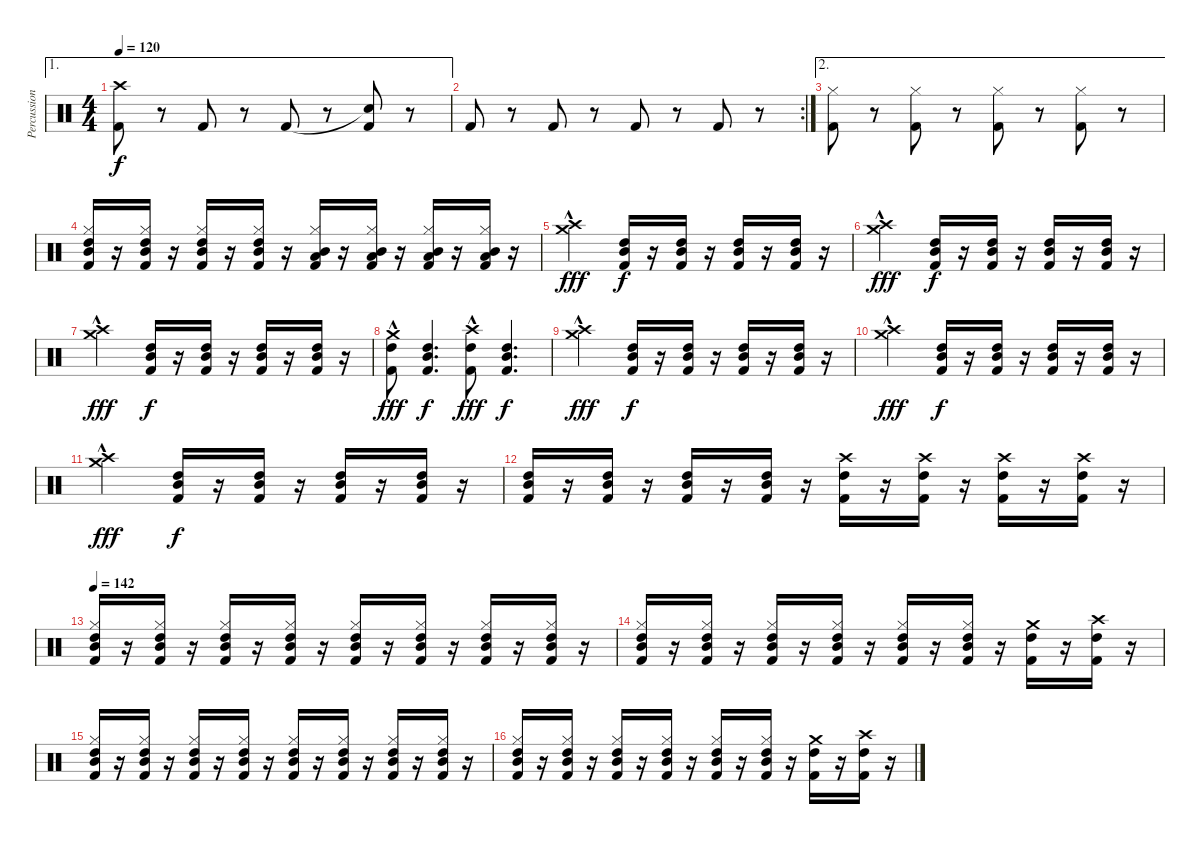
\track ("Percussion" "Percussion") {instrument percussion}
\staff {score}
\articulation defaults
\ae 1
\ts (4 4)
\tempo 120
\clef neutral
\ks c
("Crash high (hit)" "Kick (hit) 2").8{dy f} r.8 "Kick (hit) 2".8 r.8 "Kick (hit) 2".8 r.8 ("Snare (hit)"{t} "Kick (hit) 2").8 r.8 |
\rc 2 "Kick (hit) 2".8
r.8 "Kick (hit) 2".8 r.8 "Kick (hit) 2".8 r.8 "Kick (hit) 2".8 r.8 |
\ae 2
("Hi-Hat (closed)" "Kick (hit) 2").8 r.8 ("Hi-Hat (closed)" "Kick (hit) 2").8 r.8 ("Hi-Hat (closed)" "Kick (hit) 2").8 r.8 ("Hi-Hat (closed)" "Kick (hit) 2").8 r.8 |
("Hi-Hat (closed)" "High Tom (hit)" "Mid Tom (hit)" "Kick (hit) 2").16 r.16 ("Hi-Hat (closed)" "High Tom (hit)" "Mid Tom (hit)" "Kick (hit) 2").16 r.16 ("Hi-Hat (closed)" "High Tom (hit)" "Mid Tom (hit)" "Kick (hit) 2").16 r.16 ("Hi-Hat (closed)" "High Tom (hit)" "Mid Tom (hit)" "Kick (hit) 2").16 r.16 ("Hi-Hat (closed)" "Mid Tom (hit)" "Low Tom (hit)" "Kick (hit) 2").16 r.16 ("Hi-Hat (closed)" "Mid Tom (hit)" "Low Tom (hit)" "Kick (hit) 2").16 r.16 ("Hi-Hat (closed)" "Mid Tom (hit)" "Low Tom (hit)" "Kick (hit) 2").16 r.16 ("Hi-Hat (closed)" "Mid Tom (hit)" "Low Tom (hit)" "Kick (hit) 2").16 r.16 |
("Crash high (hit)"{hac} "Crash medium (hit)"{hac}).2{dy fff} ("High Tom (hit)" "Mid Tom (hit)" "Kick (hit) 2").16{dy f} r.16 ("High Tom (hit)" "Mid Tom (hit)" "Kick (hit) 2").16 r.16 ("High Tom (hit)" "Mid Tom (hit)" "Kick (hit) 2").16 r.16 ("High Tom (hit)" "Mid Tom (hit)" "Kick (hit) 2").16 r.16 |
("Crash high (hit)"{hac} "Crash medium (hit)"{hac}).2{dy fff} ("High Tom (hit)" "Mid Tom (hit)" "Kick (hit) 2").16{dy f} r.16 ("High Tom (hit)" "Mid Tom (hit)" "Kick (hit) 2").16 r.16 ("High Tom (hit)" "Mid Tom (hit)" "Kick (hit) 2").16 r.16 ("High Tom (hit)" "Mid Tom (hit)" "Kick (hit) 2").16 r.16 |
("Crash high (hit)"{hac} "Crash medium (hit)"{hac}).2{dy fff} ("High Tom (hit)" "Mid Tom (hit)" "Kick (hit) 2").16{dy f} r.16 ("High Tom (hit)" "Mid Tom (hit)" "Kick (hit) 2").16 r.16 ("High Tom (hit)" "Mid Tom (hit)" "Kick (hit) 2").16 r.16 ("High Tom (hit)" "Mid Tom (hit)" "Kick (hit) 2").16 r.16 |
("Crash medium (hit)"{hac} "High Tom (hit)" "Kick (hit) 2").8{dy fff} ("High Tom (hit)" "Mid Tom (hit)" "Kick (hit) 2").4{d dy f} ("Crash high (hit)"{hac} "High Tom (hit)" "Kick (hit) 2").8{dy fff} ("High Tom (hit)" "Mid Tom (hit)" "Kick (hit) 2").4{d dy f} |
("Crash high (hit)"{hac} "Crash medium (hit)"{hac}).2{dy fff} ("High Tom (hit)" "Mid Tom (hit)" "Kick (hit) 2").16{dy f} r.16 ("High Tom (hit)" "Mid Tom (hit)" "Kick (hit) 2").16 r.16 ("High Tom (hit)" "Mid Tom (hit)" "Kick (hit) 2").16 r.16 ("High Tom (hit)" "Mid Tom (hit)" "Kick (hit) 2").16 r.16 |
("Crash high (hit)"{hac} "Crash medium (hit)"{hac}).2{dy fff} ("High Tom (hit)" "Mid Tom (hit)" "Kick (hit) 2").16{dy f} r.16 ("High Tom (hit)" "Mid Tom (hit)" "Kick (hit) 2").16 r.16 ("High Tom (hit)" "Mid Tom (hit)" "Kick (hit) 2").16 r.16 ("High Tom (hit)" "Mid Tom (hit)" "Kick (hit) 2").16 r.16 |
("Crash high (hit)"{hac} "Crash medium (hit)"{hac}).2{dy fff} ("High Tom (hit)" "Mid Tom (hit)" "Kick (hit) 2").16{dy f} r.16 ("High Tom (hit)" "Mid Tom (hit)" "Kick (hit) 2").16 r.16 ("High Tom (hit)" "Mid Tom (hit)" "Kick (hit) 2").16 r.16 ("High Tom (hit)" "Mid Tom (hit)" "Kick (hit) 2").16 r.16 |
("High Tom (hit)" "Mid Tom (hit)" "Kick (hit) 2").16 r.16 ("High Tom (hit)" "Mid Tom (hit)" "Kick (hit) 2").16 r.16 ("High Tom (hit)" "Mid Tom (hit)" "Kick (hit) 2").16 r.16 ("High Tom (hit)" "Mid Tom (hit)" "Kick (hit) 2").16 r.16 ("Crash high (hit)" "High Tom (hit)" "Kick (hit) 2").16 r.16 ("Crash high (hit)" "High Tom (hit)" "Kick (hit) 2").16 r.16 ("Crash high (hit)" "High Tom (hit)" "Kick (hit) 2").16 r.16 ("Crash high (hit)" "High Tom (hit)" "Kick (hit) 2").16 r.16 |
\tempo 142
("Hi-Hat (closed)" "High Tom (hit)" "Mid Tom (hit)" "Kick (hit) 2").16 r.16 ("Hi-Hat (closed)" "High Tom (hit)" "Mid Tom (hit)" "Kick (hit) 2").16 r.16 ("Hi-Hat (closed)" "High Tom (hit)" "Mid Tom (hit)" "Kick (hit) 2").16 r.16 ("Hi-Hat (closed)" "High Tom (hit)" "Mid Tom (hit)" "Kick (hit) 2").16 r.16 ("Hi-Hat (closed)" "High Tom (hit)" "Mid Tom (hit)" "Kick (hit) 2").16 r.16 ("Hi-Hat (closed)" "High Tom (hit)" "Mid Tom (hit)" "Kick (hit) 2").16 r.16 ("Hi-Hat (closed)" "High Tom (hit)" "Mid Tom (hit)" "Kick (hit) 2").16 r.16 ("Hi-Hat (closed)" "High Tom (hit)" "Mid Tom (hit)" "Kick (hit) 2").16 r.16 |
("Hi-Hat (closed)" "High Tom (hit)" "Mid Tom (hit)" "Kick (hit) 2").16 r.16 ("Hi-Hat (closed)" "High Tom (hit)" "Mid Tom (hit)" "Kick (hit) 2").16 r.16 ("Hi-Hat (closed)" "High Tom (hit)" "Mid Tom (hit)" "Kick (hit) 2").16 r.16 ("Hi-Hat (closed)" "High Tom (hit)" "Mid Tom (hit)" "Kick (hit) 2").16 r.16 ("Hi-Hat (closed)" "High Tom (hit)" "Mid Tom (hit)" "Kick (hit) 2").16 r.16 ("Hi-Hat (closed)" "High Tom (hit)" "Mid Tom (hit)" "Kick (hit) 2").16 r.16 ("Crash medium (hit)" "High Tom (hit)" "Kick (hit) 2").16 r.16 ("Crash high (hit)" "High Tom (hit)" "Kick (hit) 2").16 r.16 |
("Hi-Hat (closed)" "High Tom (hit)" "Mid Tom (hit)" "Kick (hit) 2").16 r.16 ("Hi-Hat (closed)" "High Tom (hit)" "Mid Tom (hit)" "Kick (hit) 2").16 r.16 ("Hi-Hat (closed)" "High Tom (hit)" "Mid Tom (hit)" "Kick (hit) 2").16 r.16 ("Hi-Hat (closed)" "High Tom (hit)" "Mid Tom (hit)" "Kick (hit) 2").16 r.16 ("Hi-Hat (closed)" "High Tom (hit)" "Mid Tom (hit)" "Kick (hit) 2").16 r.16 ("Hi-Hat (closed)" "High Tom (hit)" "Mid Tom (hit)" "Kick (hit) 2").16 r.16 ("Hi-Hat (closed)" "High Tom (hit)" "Mid Tom (hit)" "Kick (hit) 2").16 r.16 ("Hi-Hat (closed)" "High Tom (hit)" "Mid Tom (hit)" "Kick (hit) 2").16 r.16 |
("Hi-Hat (closed)" "High Tom (hit)" "Mid Tom (hit)" "Kick (hit) 2").16 r.16 ("Hi-Hat (closed)" "High Tom (hit)" "Mid Tom (hit)" "Kick (hit) 2").16 r.16 ("Hi-Hat (closed)" "High Tom (hit)" "Mid Tom (hit)" "Kick (hit) 2").16 r.16 ("Hi-Hat (closed)" "High Tom (hit)" "Mid Tom (hit)" "Kick (hit) 2").16 r.16 ("Hi-Hat (closed)" "High Tom (hit)" "Mid Tom (hit)" "Kick (hit) 2").16 r.16 ("Hi-Hat (closed)" "High Tom (hit)" "Mid Tom (hit)" "Kick (hit) 2").16 r.16 ("Crash medium (hit)" "High Tom (hit)" "Kick (hit) 2").16 r.16 ("Crash high (hit)" "High Tom (hit)" "Kick (hit) 2").16 r.16
